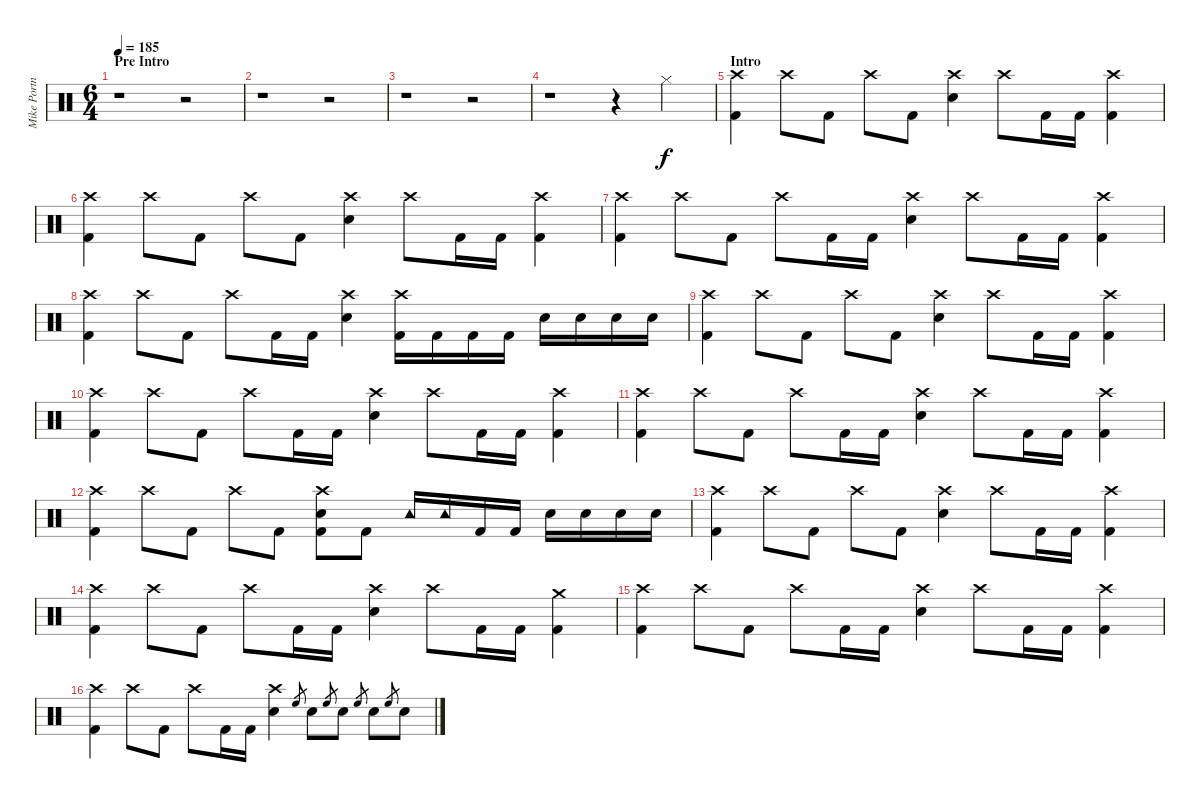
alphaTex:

\track ("Mike Portnoy" "Mike Portn") {instrument percussion}
\staff {score}
\articulation defaults
\ts (6 4)
\section ("" "Pre Intro ")
\tempo 185
\clef neutral
\ks c
r.1{dy f} r.2 |
r.1 r.2 |
r.1 r.2 |
r.1 r.4 "Hi-Hat (closed)".4 |
\section ("" "Intro")
("Crash high (hit)" "Kick (hit) 2").4 "Crash high (hit)".8 "Kick (hit) 2".8 "Crash high (hit)".8 "Kick (hit) 2".8 ("Snare (hit) 2" "Crash high (hit)").4 "Crash high (hit)".8 "Kick (hit) 2".16 "Kick (hit) 2".16 ("Crash high (hit)" "Kick (hit) 2").4 |
("Crash high (hit)" "Kick (hit) 2").4 "Crash high (hit)".8 "Kick (hit) 2".8 "Crash high (hit)".8 "Kick (hit) 2".8 ("Snare (hit) 2" "Crash high (hit)").4 "Crash high (hit)".8 "Kick (hit) 2".16 "Kick (hit) 2".16 ("Crash high (hit)" "Kick (hit) 2").4 |
("Crash high (hit)" "Kick (hit) 2").4 "Crash high (hit)".8 "Kick (hit) 2".8 "Crash high (hit)".8 "Kick (hit) 2".16 "Kick (hit) 2".16 ("Snare (hit) 2" "Crash high (hit)").4 "Crash high (hit)".8 "Kick (hit) 2".16 "Kick (hit) 2".16 ("Crash high (hit)" "Kick (hit) 2").4 |
("Crash high (hit)" "Kick (hit) 2").4 "Crash high (hit)".8 "Kick (hit) 2".8 "Crash high (hit)".8 "Kick (hit) 2".16 "Kick (hit) 2".16 ("Snare (hit) 2" "Crash high (hit)").4 ("Crash high (hit)" "Kick (hit) 2").16 "Kick (hit) 2".16 "Kick (hit) 2".16 "Kick (hit) 2".16 "Snare (hit) 2".16 "Snare (hit) 2".16 "Snare (hit) 2".16 "Snare (hit) 2".16 |
("Crash high (hit)" "Kick (hit) 2").4 "Crash high (hit)".8 "Kick (hit) 2".8 "Crash high (hit)".8 "Kick (hit) 2".8 ("Snare (hit) 2" "Crash high (hit)").4 "Crash high (hit)".8 "Kick (hit) 2".16 "Kick (hit) 2".16 ("Crash high (hit)" "Kick (hit) 2").4 |
("Crash high (hit)" "Kick (hit) 2").4 "Crash high (hit)".8 "Kick (hit) 2".8 "Crash high (hit)".8 "Kick (hit) 2".16 "Kick (hit) 2".16 ("Snare (hit) 2" "Crash high (hit)").4 "Crash high (hit)".8 "Kick (hit) 2".16 "Kick (hit) 2".16 ("Crash high (hit)" "Kick (hit) 2").4 |
("Crash high (hit)" "Kick (hit) 2").4 "Crash high (hit)".8 "Kick (hit) 2".8 "Crash high (hit)".8 "Kick (hit) 2".16 "Kick (hit) 2".16 ("Snare (hit) 2" "Crash high (hit)").4 "Crash high (hit)".8 "Kick (hit) 2".16 "Kick (hit) 2".16 ("Crash high (hit)" "Kick (hit) 2").4 |
("Crash high (hit)" "Kick (hit) 2").4 "Crash high (hit)".8 "Kick (hit) 2".8 "Crash high (hit)".8 "Kick (hit) 2".8 ("Snare (hit) 2" "Crash high (hit)" "Kick (hit) 2").8 "Kick (hit) 2".8 "Tambourine (hit)".16 "Tambourine (hit)".16 "Kick (hit) 2".16 "Kick (hit) 2".16 "Snare (hit) 2".16 "Snare (hit) 2".16 "Snare (hit) 2".16 "Snare (hit) 2".16 |
("Crash high (hit)" "Kick (hit) 2").4 "Crash high (hit)".8 "Kick (hit) 2".8 "Crash high (hit)".8 "Kick (hit) 2".8 ("Snare (hit) 2" "Crash high (hit)").4 "Crash high (hit)".8 "Kick (hit) 2".16 "Kick (hit) 2".16 ("Crash high (hit)" "Kick (hit) 2").4 |
("Crash high (hit)" "Kick (hit) 2").4 "Crash high (hit)".8 "Kick (hit) 2".8 "Crash high (hit)".8 "Kick (hit) 2".16 "Kick (hit) 2".16 ("Snare (hit) 2" "Crash high (hit)").4 "Crash high (hit)".8 "Kick (hit) 2".16 "Kick (hit) 2".16 ("Crash medium (hit)" "Kick (hit) 2").4 |
("Crash high (hit)" "Kick (hit) 2").4 "Crash high (hit)".8 "Kick (hit) 2".8 "Crash high (hit)".8 "Kick (hit) 2".16 "Kick (hit) 2".16 ("Snare (hit) 2" "Crash high (hit)").4 "Crash high (hit)".8 "Kick (hit) 2".16 "Kick (hit) 2".16 ("Crash high (hit)" "Kick (hit) 2").4 |
("Crash high (hit)" "Kick (hit) 2").4 "Crash high (hit)".8 "Kick (hit) 2".8 "Crash high (hit)".8 "Kick (hit) 2".16 "Kick (hit) 2".16 ("Snare (hit) 2" "Crash high (hit)").4 "High Floor Tom (hit)".8{gr} "Snare (hit) 2".8 "High Floor Tom (hit)".8{gr} "Snare (hit) 2".8 "High Floor Tom (hit)".8{gr} "Snare (hit) 2".8 "High Floor Tom (hit)".8{gr} "Snare (hit) 2".8
